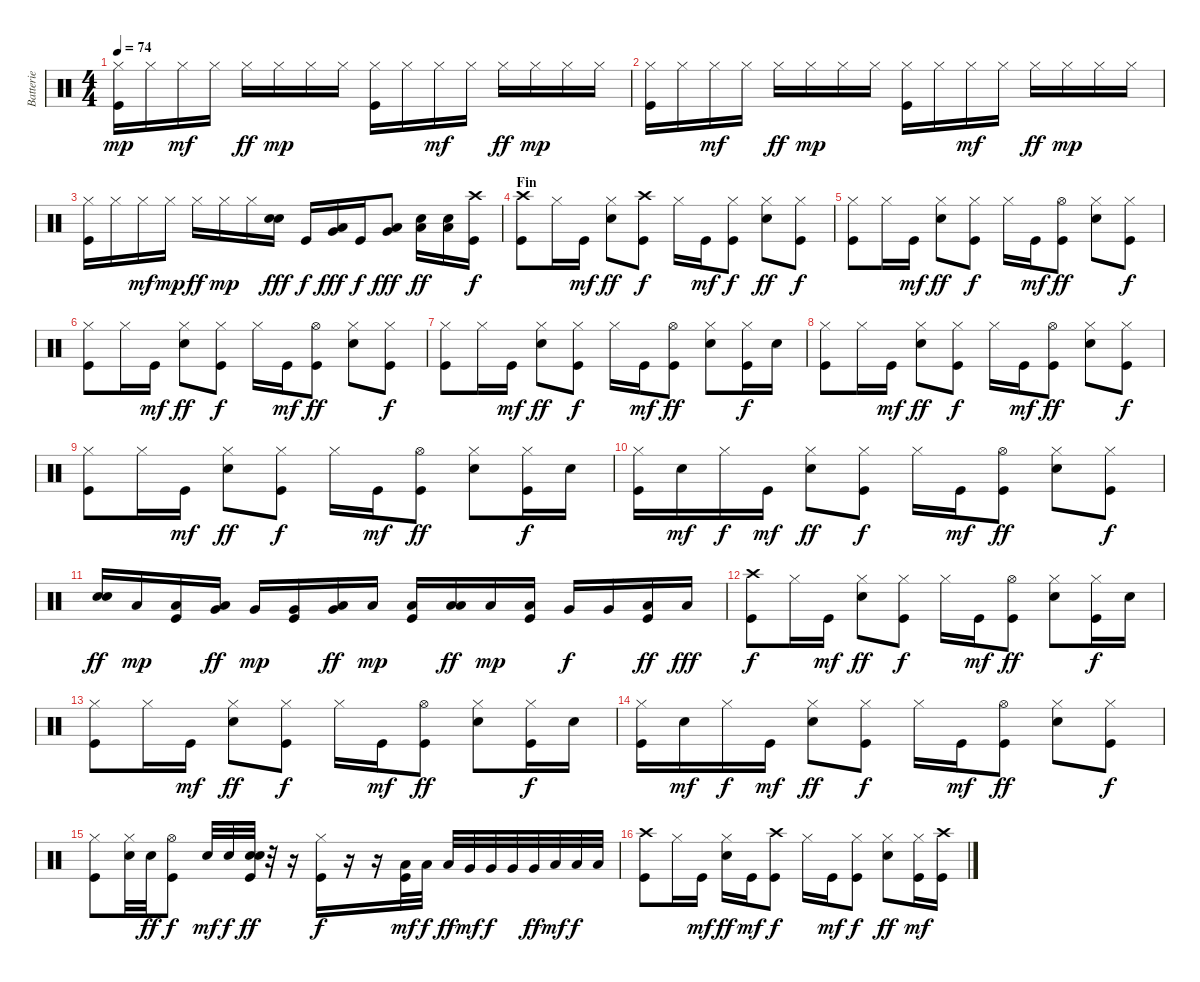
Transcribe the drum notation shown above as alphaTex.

\track ("Batterie" "Batterie") {instrument percussion}
\staff {score}
\articulation defaults
\ts (4 4)
\tempo 74
\clef neutral
\ks c
("Hi-Hat (closed)" "Kick (hit)").16{dy mp} "Hi-Hat (closed)".16 "Hi-Hat (closed)".16{dy mf} "Hi-Hat (closed)".16 "Hi-Hat (closed)".16{dy ff} "Hi-Hat (closed)".16{dy mp} "Hi-Hat (closed)".16 "Hi-Hat (closed)".16 ("Hi-Hat (closed)" "Kick (hit)").16 "Hi-Hat (closed)".16 "Hi-Hat (closed)".16{dy mf} "Hi-Hat (closed)".16 "Hi-Hat (closed)".16{dy ff} "Hi-Hat (closed)".16{dy mp} "Hi-Hat (closed)".16 "Hi-Hat (closed)".16 |
("Hi-Hat (closed)" "Kick (hit)").16 "Hi-Hat (closed)".16 "Hi-Hat (closed)".16{dy mf} "Hi-Hat (closed)".16 "Hi-Hat (closed)".16{dy ff} "Hi-Hat (closed)".16{dy mp} "Hi-Hat (closed)".16 "Hi-Hat (closed)".16 ("Hi-Hat (closed)" "Kick (hit)").16 "Hi-Hat (closed)".16 "Hi-Hat (closed)".16{dy mf} "Hi-Hat (closed)".16 "Hi-Hat (closed)".16{dy ff} "Hi-Hat (closed)".16{dy mp} "Hi-Hat (closed)".16 "Hi-Hat (closed)".16 |
("Hi-Hat (closed)" "Kick (hit)").16 "Hi-Hat (closed)".16 "Hi-Hat (closed)".16{dy mf} "Hi-Hat (closed)".16{dy mp} "Hi-Hat (closed)".16{dy ff} "Hi-Hat (closed)".16{dy mp} "Hi-Hat (closed)".16 ("Snare (hit) 2" "Snare (hit) 2").16{bu 120 dy fff} "Kick (hit)".16{dy f} ("Very Low Tom (hit)" "Low Tom (hit)").16{bu 120 dy fff} "Kick (hit)".16{dy f} ("Low Floor Tom (hit)" "Very Low Tom (hit)").8{bu 120 dy fff} ("Low Floor Tom (hit)" "Snare (hit) 2").16{dy ff} ("Low Floor Tom (hit)" "Snare (hit) 2").16 ("Crash high (hit)" "Kick (hit)").16{dy f} |
\section ("" "Fin")
("Crash high (hit)" "Kick (hit)").8 "Hi-Hat (closed)".16 "Kick (hit)".16{dy mf} ("Hi-Hat (closed)" "Snare (hit) 2").8{dy ff} ("Crash high (hit)" "Kick (hit)").8{dy f} "Hi-Hat (closed)".16 "Kick (hit)".16{dy mf} ("Hi-Hat (closed)" "Kick (hit)").8{dy f} ("Hi-Hat (closed)" "Snare (hit) 2").8{dy ff} ("Hi-Hat (closed)" "Kick (hit)").8{dy f} |
("Hi-Hat (closed)" "Kick (hit)").8 "Hi-Hat (closed)".16 "Kick (hit)".16{dy mf} ("Hi-Hat (closed)" "Snare (hit) 2").8{dy ff} ("Hi-Hat (closed)" "Kick (hit)").8{dy f} "Hi-Hat (closed)".16 "Kick (hit)".16{dy mf} ("Hi-Hat (open)" "Kick (hit)").8{dy ff} ("Hi-Hat (closed)" "Snare (hit) 2").8 ("Hi-Hat (closed)" "Kick (hit)").8{dy f} |
("Hi-Hat (closed)" "Kick (hit)").8 "Hi-Hat (closed)".16 "Kick (hit)".16{dy mf} ("Hi-Hat (closed)" "Snare (hit) 2").8{dy ff} ("Hi-Hat (closed)" "Kick (hit)").8{dy f} "Hi-Hat (closed)".16 "Kick (hit)".16{dy mf} ("Hi-Hat (open)" "Kick (hit)").8{dy ff} ("Hi-Hat (closed)" "Snare (hit) 2").8 ("Hi-Hat (closed)" "Kick (hit)").8{dy f} |
("Hi-Hat (closed)" "Kick (hit)").8 "Hi-Hat (closed)".16 "Kick (hit)".16{dy mf} ("Hi-Hat (closed)" "Snare (hit) 2").8{dy ff} ("Hi-Hat (closed)" "Kick (hit)").8{dy f} "Hi-Hat (closed)".16 "Kick (hit)".16{dy mf} ("Hi-Hat (open)" "Kick (hit)").8{dy ff} ("Hi-Hat (closed)" "Snare (hit) 2").8 ("Hi-Hat (closed)" "Kick (hit)").16{dy f} "Snare (hit) 2".16 |
("Hi-Hat (closed)" "Kick (hit)").8 "Hi-Hat (closed)".16 "Kick (hit)".16{dy mf} ("Hi-Hat (closed)" "Snare (hit) 2").8{dy ff} ("Hi-Hat (closed)" "Kick (hit)").8{dy f} "Hi-Hat (closed)".16 "Kick (hit)".16{dy mf} ("Hi-Hat (open)" "Kick (hit)").8{dy ff} ("Hi-Hat (closed)" "Snare (hit) 2").8 ("Hi-Hat (closed)" "Kick (hit)").8{dy f} |
("Hi-Hat (closed)" "Kick (hit)").8 "Hi-Hat (closed)".16 "Kick (hit)".16{dy mf} ("Hi-Hat (closed)" "Snare (hit) 2").8{dy ff} ("Hi-Hat (closed)" "Kick (hit)").8{dy f} "Hi-Hat (closed)".16 "Kick (hit)".16{dy mf} ("Hi-Hat (open)" "Kick (hit)").8{dy ff} ("Hi-Hat (closed)" "Snare (hit) 2").8 ("Hi-Hat (closed)" "Kick (hit)").16{dy f} "Snare (hit) 2".16 |
("Hi-Hat (closed)" "Kick (hit)").16 "Snare (hit) 2".16{dy mf} "Hi-Hat (closed)".16{dy f} "Kick (hit)".16{dy mf} ("Hi-Hat (closed)" "Snare (hit) 2").8{dy ff} ("Hi-Hat (closed)" "Kick (hit)").8{dy f} "Hi-Hat (closed)".16 "Kick (hit)".16{dy mf} ("Hi-Hat (open)" "Kick (hit)").8{dy ff} ("Hi-Hat (closed)" "Snare (hit) 2").8 ("Hi-Hat (closed)" "Kick (hit)").8{dy f} |
("Snare (hit) 2" "Snare (hit) 2").16{bu 120 dy ff} "Low Floor Tom (hit)".16{dy mp} ("Low Floor Tom (hit)" "Kick (hit)").16 ("Very Low Tom (hit)" "Low Tom (hit)").16{bu 120 dy ff} "Very Low Tom (hit)".16{dy mp} ("Very Low Tom (hit)" "Kick (hit)").16 ("Low Floor Tom (hit)" "Very Low Tom (hit)").16{bu 120 dy ff} "Low Floor Tom (hit)".16{dy mp} ("Low Floor Tom (hit)" "Kick (hit)").16 ("Low Floor Tom (hit)" "Low Floor Tom (hit)").16{bu 120 dy ff} "Low Floor Tom (hit)".16{dy mp} ("Low Floor Tom (hit)" "Kick (hit)").16 "Very Low Tom (hit)".16{dy f} "Very Low Tom (hit)".16 ("Low Floor Tom (hit)" "Kick (hit)").16{dy ff} "Low Floor Tom (hit)".16{dy fff} |
("Crash high (hit)" "Kick (hit)").8{dy f} "Hi-Hat (closed)".16 "Kick (hit)".16{dy mf} ("Hi-Hat (closed)" "Snare (hit) 2").8{dy ff} ("Hi-Hat (closed)" "Kick (hit)").8{dy f} "Hi-Hat (closed)".16 "Kick (hit)".16{dy mf} ("Hi-Hat (open)" "Kick (hit)").8{dy ff} ("Hi-Hat (closed)" "Snare (hit) 2").8 ("Hi-Hat (closed)" "Kick (hit)").16{dy f} "Snare (hit) 2".16 |
("Hi-Hat (closed)" "Kick (hit)").8 "Hi-Hat (closed)".16 "Kick (hit)".16{dy mf} ("Hi-Hat (closed)" "Snare (hit) 2").8{dy ff} ("Hi-Hat (closed)" "Kick (hit)").8{dy f} "Hi-Hat (closed)".16 "Kick (hit)".16{dy mf} ("Hi-Hat (open)" "Kick (hit)").8{dy ff} ("Hi-Hat (closed)" "Snare (hit) 2").8 ("Hi-Hat (closed)" "Kick (hit)").16{dy f} "Snare (hit) 2".16 |
("Hi-Hat (closed)" "Kick (hit)").16 "Snare (hit) 2".16{dy mf} "Hi-Hat (closed)".16{dy f} "Kick (hit)".16{dy mf} ("Hi-Hat (closed)" "Snare (hit) 2").8{dy ff} ("Hi-Hat (closed)" "Kick (hit)").8{dy f} "Hi-Hat (closed)".16 "Kick (hit)".16{dy mf} ("Hi-Hat (open)" "Kick (hit)").8{dy ff} ("Hi-Hat (closed)" "Snare (hit) 2").8 ("Hi-Hat (closed)" "Kick (hit)").8{dy f} |
("Hi-Hat (closed)" "Kick (hit)").8 ("Hi-Hat (closed)" "Snare (hit) 2").32 "Snare (hit) 2".32{dy ff} ("Hi-Hat (open)" "Kick (hit)").8{dy f} "Snare (hit) 2".32{dy mf} "Snare (hit) 2".32{dy f} ("Snare (hit) 2" "Snare (hit) 2" "Kick (hit)").32{bu 240 dy ff} r.32 r.16 ("Hi-Hat (closed)" "Kick (hit)").16{dy f} r.16 r.16 ("Low Tom (hit)" "Kick (hit)").32{dy mf} "Low Tom (hit)".32{dy f} "Low Tom (hit)".32{dy ff} "Very Low Tom (hit)".32{dy mf} "Very Low Tom (hit)".32{dy f} "Very Low Tom (hit)".32 "Very Low Tom (hit)".32{dy ff} "Low Floor Tom (hit)".32{dy mf} "Low Floor Tom (hit)".32{dy f} "Low Floor Tom (hit)".32 |
("Crash high (hit)" "Kick (hit)").8 "Hi-Hat (closed)".16 "Kick (hit)".16{dy mf} ("Hi-Hat (closed)" "Snare (hit) 2").16{dy ff} "Kick (hit)".16{dy mf} ("Crash high (hit)" "Kick (hit)").8{dy f} "Hi-Hat (closed)".16 "Kick (hit)".16{dy mf} ("Hi-Hat (closed)" "Kick (hit)").8{dy f} ("Hi-Hat (closed)" "Snare (hit) 2").8{dy ff} ("Hi-Hat (closed)" "Kick (hit)").16{dy mf} ("Crash high (hit)" "Kick (hit)").16
